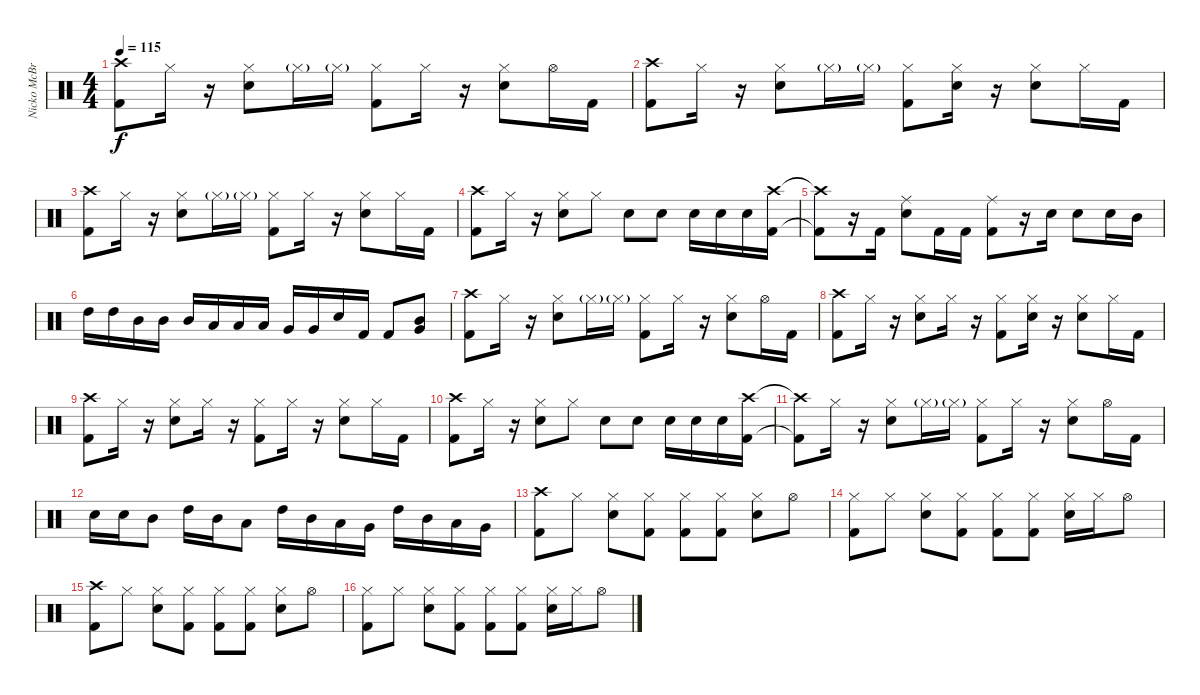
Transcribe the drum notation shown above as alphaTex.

\track ("Nicko McBrain" "Nicko McBr") {instrument percussion}
\staff {score}
\articulation defaults
\ts (4 4)
\tempo 115
\clef neutral
\ks c
("Crash high (hit)" "Kick (hit) 2").8{dy f} "Hi-Hat (closed)".16 r.16 ("Hi-Hat (closed)" "Electric Snare (hit)").8 "Hi-Hat (closed)"{g}.16 "Hi-Hat (closed)"{g}.16 ("Hi-Hat (closed)" "Kick (hit) 2").8 "Hi-Hat (closed)".16 r.16 ("Hi-Hat (closed)" "Electric Snare (hit)").8 "Hi-Hat (open)".16 "Kick (hit) 2".16 |
("Crash high (hit)" "Kick (hit) 2").8 "Hi-Hat (closed)".16 r.16 ("Hi-Hat (closed)" "Electric Snare (hit)").8 "Hi-Hat (closed)"{g}.16 "Hi-Hat (closed)"{g}.16 ("Hi-Hat (closed)" "Kick (hit) 2").8 ("Hi-Hat (closed)" "Electric Snare (hit)").16 r.16 ("Hi-Hat (closed)" "Electric Snare (hit)").8 "Hi-Hat (closed)".16 "Kick (hit) 2".16 |
("Crash high (hit)" "Kick (hit) 2").8 "Hi-Hat (closed)".16 r.16 ("Hi-Hat (closed)" "Electric Snare (hit)").8 "Hi-Hat (closed)"{g}.16 "Hi-Hat (closed)"{g}.16 ("Hi-Hat (closed)" "Kick (hit) 2").8 "Hi-Hat (closed)".16 r.16 ("Hi-Hat (closed)" "Electric Snare (hit)").8 "Hi-Hat (closed)".16 "Kick (hit) 2".16 |
("Crash high (hit)" "Kick (hit) 2").8 "Hi-Hat (closed)".16 r.16 ("Hi-Hat (closed)" "Electric Snare (hit)").8 "Hi-Hat (closed)".8 "Electric Snare (hit)".8 "Electric Snare (hit)".8 "Electric Snare (hit)".16 "Electric Snare (hit)".16 "Electric Snare (hit)".16 ("Crash high (hit)" "Kick (hit) 2").16 |
("Crash high (hit)"{t} "Kick (hit) 2"{t}).8 r.16 "Kick (hit) 2".16 ("Ride (middle)" "Electric Snare (hit)").8 "Kick (hit) 2".16 "Kick (hit) 2".16 ("Ride (middle)" "Kick (hit) 2").8 r.16 "Electric Snare (hit)".16 "Electric Snare (hit)".8 "Electric Snare (hit)".16 "Mid Tom (hit)".16 |
"High Tom (hit)".16 "High Tom (hit)".16 "Mid Tom (hit)".16 "Mid Tom (hit)".16 "Mid Tom (hit)".16 "Low Tom (hit)".16 "Low Tom (hit)".16 "Low Tom (hit)".16 "Very Low Tom (hit)".16 "Very Low Tom (hit)".16 "Electric Snare (hit)".16 "Kick (hit) 2".16 "Kick (hit) 2".8 ("Mid Tom (hit)" "Very Low Tom (hit)").8 |
("Crash high (hit)" "Kick (hit) 2").8 "Hi-Hat (closed)".16 r.16 ("Hi-Hat (closed)" "Electric Snare (hit)").8 "Hi-Hat (closed)"{g}.16 "Hi-Hat (closed)"{g}.16 ("Hi-Hat (closed)" "Kick (hit) 2").8 "Hi-Hat (closed)".16 r.16 ("Hi-Hat (closed)" "Electric Snare (hit)").8 "Hi-Hat (open)".16 "Kick (hit) 2".16 |
("Crash high (hit)" "Kick (hit) 2").8 "Hi-Hat (closed)".16 r.16 ("Hi-Hat (closed)" "Electric Snare (hit)").8 "Hi-Hat (closed)".16 r.16 ("Hi-Hat (closed)" "Kick (hit) 2").8 ("Hi-Hat (closed)" "Electric Snare (hit)").16 r.16 ("Hi-Hat (closed)" "Electric Snare (hit)").8 "Hi-Hat (closed)".16 "Kick (hit) 2".16 |
("Crash high (hit)" "Kick (hit) 2").8 "Hi-Hat (closed)".16 r.16 ("Hi-Hat (closed)" "Electric Snare (hit)").8 "Hi-Hat (closed)".16 r.16 ("Hi-Hat (closed)" "Kick (hit) 2").8 "Hi-Hat (closed)".16 r.16 ("Hi-Hat (closed)" "Electric Snare (hit)").8 "Hi-Hat (closed)".16 "Kick (hit) 2".16 |
("Crash high (hit)" "Kick (hit) 2").8 "Hi-Hat (closed)".16 r.16 ("Hi-Hat (closed)" "Electric Snare (hit)").8 "Hi-Hat (closed)".8 "Electric Snare (hit)".8 "Electric Snare (hit)".8 "Electric Snare (hit)".16 "Electric Snare (hit)".16 "Electric Snare (hit)".16 ("Crash high (hit)" "Kick (hit) 2").16 |
("Crash high (hit)"{t} "Kick (hit) 2"{t}).8 "Hi-Hat (closed)".16 r.16 ("Hi-Hat (closed)" "Electric Snare (hit)").8 "Hi-Hat (closed)"{g}.16 "Hi-Hat (closed)"{g}.16 ("Hi-Hat (closed)" "Kick (hit) 2").8 "Hi-Hat (closed)".16 r.16 ("Hi-Hat (closed)" "Electric Snare (hit)").8 "Hi-Hat (open)".16 "Kick (hit) 2".16 |
"Electric Snare (hit)".16 "Electric Snare (hit)".16 "Mid Tom (hit)".8 "High Tom (hit)".16 "Mid Tom (hit)".16 "Low Tom (hit)".8 "High Tom (hit)".16 "Mid Tom (hit)".16 "Low Tom (hit)".16 "Very Low Tom (hit)".16 "High Tom (hit)".16 "Mid Tom (hit)".16 "Low Tom (hit)".16 "Very Low Tom (hit)".16 |
("Crash high (hit)" "Kick (hit) 2").8 "Hi-Hat (closed)".8 ("Hi-Hat (closed)" "Electric Snare (hit)").8 ("Hi-Hat (closed)" "Kick (hit) 2").8 ("Hi-Hat (closed)" "Kick (hit) 2").8 ("Hi-Hat (closed)" "Kick (hit) 2").8 ("Hi-Hat (closed)" "Electric Snare (hit)").8 "Hi-Hat (open)".8 |
("Hi-Hat (closed)" "Kick (hit) 2").8 "Hi-Hat (closed)".8 ("Hi-Hat (closed)" "Electric Snare (hit)").8 ("Hi-Hat (closed)" "Kick (hit) 2").8 ("Hi-Hat (closed)" "Kick (hit) 2").8 ("Hi-Hat (closed)" "Kick (hit) 2").8 ("Hi-Hat (closed)" "Electric Snare (hit)").16 "Hi-Hat (closed)".16 "Hi-Hat (open)".8 |
("Crash high (hit)" "Kick (hit) 2").8 "Hi-Hat (closed)".8 ("Hi-Hat (closed)" "Electric Snare (hit)").8 ("Hi-Hat (closed)" "Kick (hit) 2").8 ("Hi-Hat (closed)" "Kick (hit) 2").8 ("Hi-Hat (closed)" "Kick (hit) 2").8 ("Hi-Hat (closed)" "Electric Snare (hit)").8 "Hi-Hat (open)".8 |
("Hi-Hat (closed)" "Kick (hit) 2").8 "Hi-Hat (closed)".8 ("Hi-Hat (closed)" "Electric Snare (hit)").8 ("Hi-Hat (closed)" "Kick (hit) 2").8 ("Hi-Hat (closed)" "Kick (hit) 2").8 ("Hi-Hat (closed)" "Kick (hit) 2").8 ("Hi-Hat (closed)" "Electric Snare (hit)").16 "Hi-Hat (closed)".16 "Hi-Hat (open)".8
